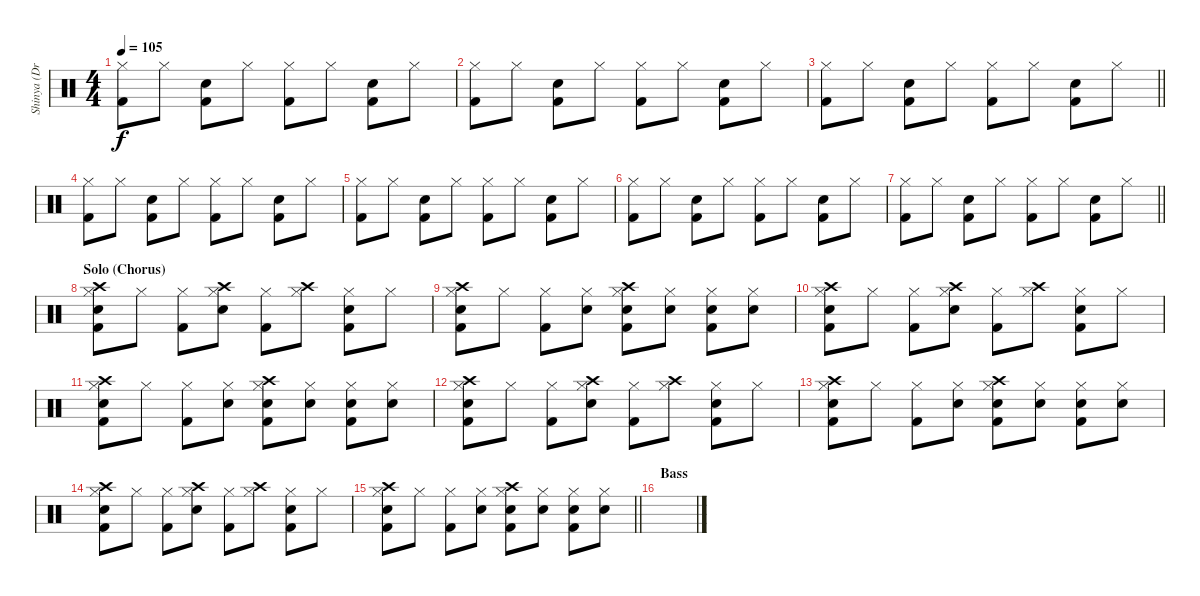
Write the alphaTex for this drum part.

\track ("Shinya (Drums)" "Shinya (Dr") {instrument percussion}
\staff {score}
\articulation defaults
\ts (4 4)
\tempo 105
\clef neutral
\ks c
("Hi-Hat (closed)" "Kick (hit) 2").8{dy f} "Hi-Hat (closed)".8 ("Snare (hit) 2" "Kick (hit) 2").8 "Hi-Hat (closed)".8 ("Hi-Hat (closed)" "Kick (hit) 2").8 "Hi-Hat (closed)".8 ("Snare (hit) 2" "Kick (hit) 2").8 "Hi-Hat (closed)".8 |
("Hi-Hat (closed)" "Kick (hit) 2").8 "Hi-Hat (closed)".8 ("Snare (hit) 2" "Kick (hit) 2").8 "Hi-Hat (closed)".8 ("Hi-Hat (closed)" "Kick (hit) 2").8 "Hi-Hat (closed)".8 ("Snare (hit) 2" "Kick (hit) 2").8 "Hi-Hat (closed)".8 |
\barLineRight lightlight
("Hi-Hat (closed)" "Kick (hit) 2").8 "Hi-Hat (closed)".8 ("Snare (hit) 2" "Kick (hit) 2").8 "Hi-Hat (closed)".8 ("Hi-Hat (closed)" "Kick (hit) 2").8 "Hi-Hat (closed)".8 ("Snare (hit) 2" "Kick (hit) 2").8 "Hi-Hat (closed)".8 |
("Hi-Hat (closed)" "Kick (hit) 2").8 "Hi-Hat (closed)".8 ("Snare (hit) 2" "Kick (hit) 2").8 "Hi-Hat (closed)".8 ("Hi-Hat (closed)" "Kick (hit) 2").8 "Hi-Hat (closed)".8 ("Snare (hit) 2" "Kick (hit) 2").8 "Hi-Hat (closed)".8 |
("Hi-Hat (closed)" "Kick (hit) 2").8 "Hi-Hat (closed)".8 ("Snare (hit) 2" "Kick (hit) 2").8 "Hi-Hat (closed)".8 ("Hi-Hat (closed)" "Kick (hit) 2").8 "Hi-Hat (closed)".8 ("Snare (hit) 2" "Kick (hit) 2").8 "Hi-Hat (closed)".8 |
("Hi-Hat (closed)" "Kick (hit) 2").8 "Hi-Hat (closed)".8 ("Snare (hit) 2" "Kick (hit) 2").8 "Hi-Hat (closed)".8 ("Hi-Hat (closed)" "Kick (hit) 2").8 "Hi-Hat (closed)".8 ("Snare (hit) 2" "Kick (hit) 2").8 "Hi-Hat (closed)".8 |
\barLineRight lightlight
("Hi-Hat (closed)" "Kick (hit) 2").8 "Hi-Hat (closed)".8 ("Snare (hit) 2" "Kick (hit) 2").8 "Hi-Hat (closed)".8 ("Hi-Hat (closed)" "Kick (hit) 2").8 "Hi-Hat (closed)".8 ("Snare (hit) 2" "Kick (hit) 2").8 "Hi-Hat (closed)".8 |
\section ("" "Solo (Chorus)")
("Crash high (hit)" "Hi-Hat (closed)" "Snare (hit) 2" "Kick (hit) 2").8 "Hi-Hat (closed)".8 ("Hi-Hat (closed)" "Kick (hit) 2").8 ("Crash high (hit)" "Hi-Hat (closed)" "Snare (hit) 2").8 ("Hi-Hat (closed)" "Kick (hit) 2").8 ("Crash high (hit)" "Hi-Hat (closed)").8 ("Hi-Hat (closed)" "Snare (hit) 2" "Kick (hit) 2").8 "Hi-Hat (closed)".8 |
("Crash high (hit)" "Hi-Hat (closed)" "Snare (hit) 2" "Kick (hit) 2").8 "Hi-Hat (closed)".8 ("Hi-Hat (closed)" "Kick (hit) 2").8 ("Hi-Hat (closed)" "Snare (hit) 2").8 ("Crash high (hit)" "Hi-Hat (closed)" "Snare (hit) 2" "Kick (hit) 2").8 ("Hi-Hat (closed)" "Snare (hit) 2").8 ("Hi-Hat (closed)" "Snare (hit) 2" "Kick (hit) 2").8 ("Hi-Hat (closed)" "Snare (hit) 2").8 |
("Crash high (hit)" "Hi-Hat (closed)" "Snare (hit) 2" "Kick (hit) 2").8 "Hi-Hat (closed)".8 ("Hi-Hat (closed)" "Kick (hit) 2").8 ("Crash high (hit)" "Hi-Hat (closed)" "Snare (hit) 2").8 ("Hi-Hat (closed)" "Kick (hit) 2").8 ("Crash high (hit)" "Hi-Hat (closed)").8 ("Hi-Hat (closed)" "Snare (hit) 2" "Kick (hit) 2").8 "Hi-Hat (closed)".8 |
("Crash high (hit)" "Hi-Hat (closed)" "Snare (hit) 2" "Kick (hit) 2").8 "Hi-Hat (closed)".8 ("Hi-Hat (closed)" "Kick (hit) 2").8 ("Hi-Hat (closed)" "Snare (hit) 2").8 ("Crash high (hit)" "Hi-Hat (closed)" "Snare (hit) 2" "Kick (hit) 2").8 ("Hi-Hat (closed)" "Snare (hit) 2").8 ("Hi-Hat (closed)" "Snare (hit) 2" "Kick (hit) 2").8 ("Hi-Hat (closed)" "Snare (hit) 2").8 |
("Crash high (hit)" "Hi-Hat (closed)" "Snare (hit) 2" "Kick (hit) 2").8 "Hi-Hat (closed)".8 ("Hi-Hat (closed)" "Kick (hit) 2").8 ("Crash high (hit)" "Hi-Hat (closed)" "Snare (hit) 2").8 ("Hi-Hat (closed)" "Kick (hit) 2").8 ("Crash high (hit)" "Hi-Hat (closed)").8 ("Hi-Hat (closed)" "Snare (hit) 2" "Kick (hit) 2").8 "Hi-Hat (closed)".8 |
("Crash high (hit)" "Hi-Hat (closed)" "Snare (hit) 2" "Kick (hit) 2").8 "Hi-Hat (closed)".8 ("Hi-Hat (closed)" "Kick (hit) 2").8 ("Hi-Hat (closed)" "Snare (hit) 2").8 ("Crash high (hit)" "Hi-Hat (closed)" "Snare (hit) 2" "Kick (hit) 2").8 ("Hi-Hat (closed)" "Snare (hit) 2").8 ("Hi-Hat (closed)" "Snare (hit) 2" "Kick (hit) 2").8 ("Hi-Hat (closed)" "Snare (hit) 2").8 |
("Crash high (hit)" "Hi-Hat (closed)" "Snare (hit) 2" "Kick (hit) 2").8 "Hi-Hat (closed)".8 ("Hi-Hat (closed)" "Kick (hit) 2").8 ("Crash high (hit)" "Hi-Hat (closed)" "Snare (hit) 2").8 ("Hi-Hat (closed)" "Kick (hit) 2").8 ("Crash high (hit)" "Hi-Hat (closed)").8 ("Hi-Hat (closed)" "Snare (hit) 2" "Kick (hit) 2").8 "Hi-Hat (closed)".8 |
\barLineRight lightlight
("Crash high (hit)" "Hi-Hat (closed)" "Snare (hit) 2" "Kick (hit) 2").8 "Hi-Hat (closed)".8 ("Hi-Hat (closed)" "Kick (hit) 2").8 ("Hi-Hat (closed)" "Snare (hit) 2").8 ("Crash high (hit)" "Hi-Hat (closed)" "Snare (hit) 2" "Kick (hit) 2").8 ("Hi-Hat (closed)" "Snare (hit) 2").8 ("Hi-Hat (closed)" "Snare (hit) 2" "Kick (hit) 2").8 ("Hi-Hat (closed)" "Snare (hit) 2").8 |
\section ("" "Bass")
